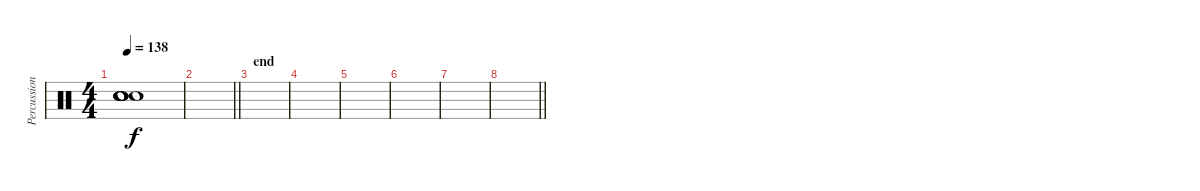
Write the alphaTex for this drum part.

\track ("Percussion" "Percussion") {instrument percussion}
\staff {score}
\articulation defaults
\ts (4 4)
\tempo 138
\clef neutral
\ks c
("Snare (hit)"{t} "Snare (hit)"{t} "Snare (hit)"{t} "Snare (hit)"{t} "Snare (hit)"{t} "Snare (hit)"{t}).1{dy f} |
\barLineRight lightlight
|
\section ("" "end")
|
|
|
|
|
\barLineRight lightlight
